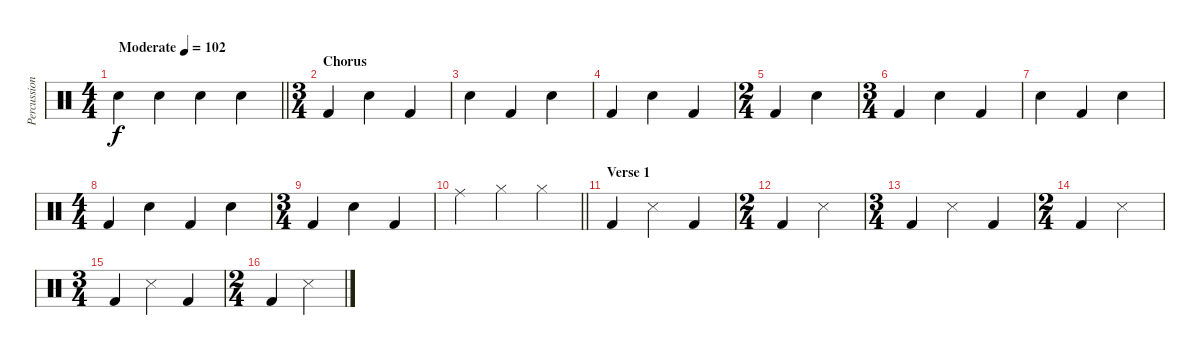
\track ("Percussion" "Percussion") {instrument percussion}
\staff {score}
\articulation defaults
\ts (4 4)
\tempo (102 "Moderate")
\clef neutral
\barLineRight lightlight
\ks c "Snare (hit) 2".4{dy f} "Snare (hit) 2".4 "Snare (hit) 2".4 "Snare (hit) 2".4
|
\ts (3 4)
\section ("" "Chorus")
"Kick (hit) 2".4 "Snare (hit) 2".4 "Kick (hit) 2".4 |
"Snare (hit) 2".4 "Kick (hit) 2".4 "Snare (hit) 2".4 |
"Kick (hit) 2".4 "Snare (hit) 2".4 "Kick (hit) 2".4 |
\ts (2 4)
"Kick (hit) 2".4 "Snare (hit) 2".4 |
\ts (3 4)
"Kick (hit) 2".4 "Snare (hit) 2".4 "Kick (hit) 2".4 |
"Snare (hit) 2".4 "Kick (hit) 2".4 "Snare (hit) 2".4 |
\ts (4 4)
"Kick (hit) 2".4 "Snare (hit) 2".4 "Kick (hit) 2".4 "Snare (hit) 2".4 |
\ts (3 4)
"Kick (hit) 2".4 "Snare (hit) 2".4 "Kick (hit) 2".4 |
\barLineRight lightlight "Ride (middle)".4 "Hi-Hat (closed)".4 "Hi-Hat (closed)".4
|
\section ("" "Verse 1")
"Kick (hit) 2".4 "Snare (side stick) 3".4 "Kick (hit) 2".4 |
\ts (2 4)
"Kick (hit) 2".4 "Snare (side stick) 3".4 |
\ts (3 4)
"Kick (hit) 2".4 "Snare (side stick) 3".4 "Kick (hit) 2".4 |
\ts (2 4)
"Kick (hit) 2".4 "Snare (side stick) 3".4 |
\ts (3 4)
"Kick (hit) 2".4 "Snare (side stick) 3".4 "Kick (hit) 2".4 |
\ts (2 4)
"Kick (hit) 2".4 "Snare (side stick) 3".4
